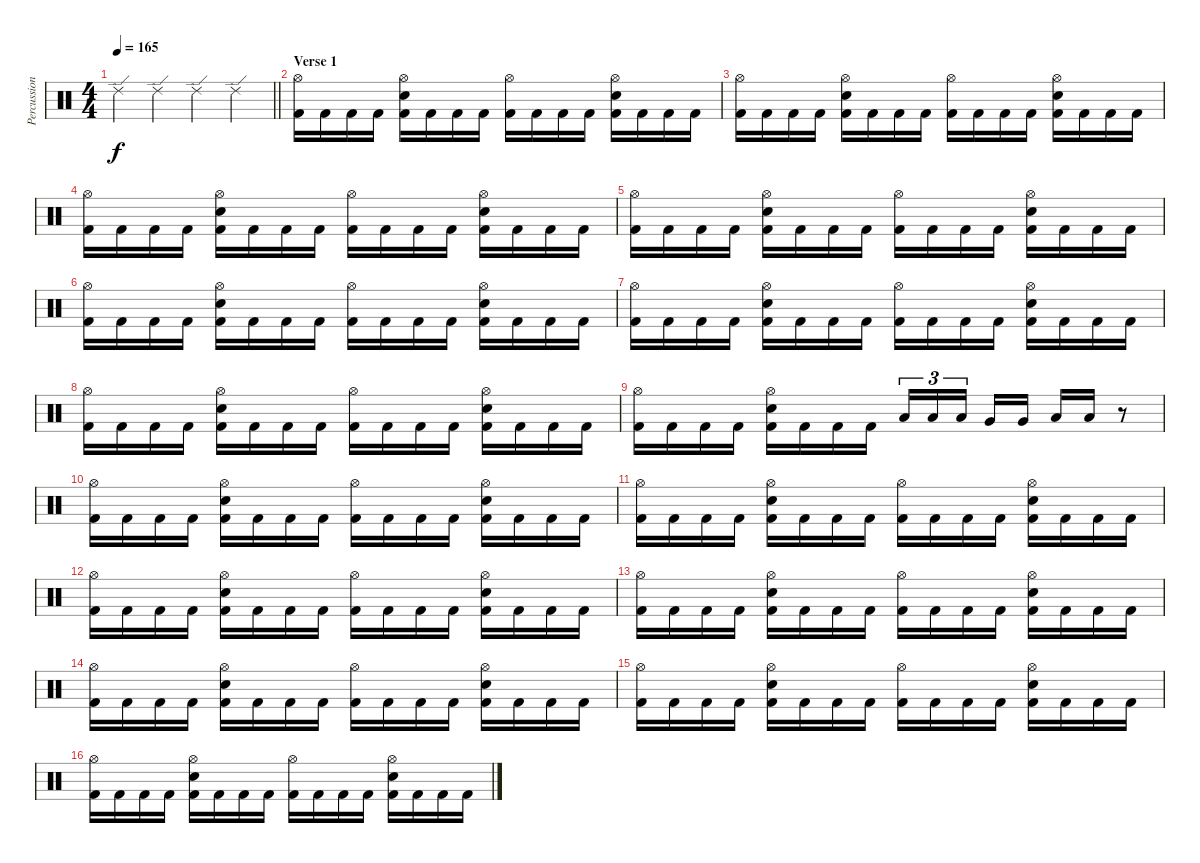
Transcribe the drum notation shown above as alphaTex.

\track ("Percussions" "Percussion") {instrument percussion}
\staff {score}
\articulation defaults
\ts (4 4)
\tempo 165
\clef neutral
\barLineRight lightlight
\ks c "Ride (edge) 2".4{dy f} "Ride (edge) 2".4 "Ride (edge) 2".4 "Ride (edge) 2".4
|
\section ("" "Verse 1")
("Hi-Hat (open)" "Kick (hit) 2").16 "Kick (hit) 2".16 "Kick (hit) 2".16 "Kick (hit) 2".16 ("Hi-Hat (open)" "Electric Snare (hit)" "Kick (hit) 2").16 "Kick (hit) 2".16 "Kick (hit) 2".16 "Kick (hit) 2".16 ("Hi-Hat (open)" "Kick (hit) 2").16 "Kick (hit) 2".16 "Kick (hit) 2".16 "Kick (hit) 2".16 ("Hi-Hat (open)" "Electric Snare (hit)" "Kick (hit) 2").16 "Kick (hit) 2".16 "Kick (hit) 2".16 "Kick (hit) 2".16 |
("Hi-Hat (open)" "Kick (hit) 2").16 "Kick (hit) 2".16 "Kick (hit) 2".16 "Kick (hit) 2".16 ("Hi-Hat (open)" "Electric Snare (hit)" "Kick (hit) 2").16 "Kick (hit) 2".16 "Kick (hit) 2".16 "Kick (hit) 2".16 ("Hi-Hat (open)" "Kick (hit) 2").16 "Kick (hit) 2".16 "Kick (hit) 2".16 "Kick (hit) 2".16 ("Hi-Hat (open)" "Electric Snare (hit)" "Kick (hit) 2").16 "Kick (hit) 2".16 "Kick (hit) 2".16 "Kick (hit) 2".16 |
("Hi-Hat (open)" "Kick (hit) 2").16 "Kick (hit) 2".16 "Kick (hit) 2".16 "Kick (hit) 2".16 ("Hi-Hat (open)" "Electric Snare (hit)" "Kick (hit) 2").16 "Kick (hit) 2".16 "Kick (hit) 2".16 "Kick (hit) 2".16 ("Hi-Hat (open)" "Kick (hit) 2").16 "Kick (hit) 2".16 "Kick (hit) 2".16 "Kick (hit) 2".16 ("Hi-Hat (open)" "Electric Snare (hit)" "Kick (hit) 2").16 "Kick (hit) 2".16 "Kick (hit) 2".16 "Kick (hit) 2".16 |
("Hi-Hat (open)" "Kick (hit) 2").16 "Kick (hit) 2".16 "Kick (hit) 2".16 "Kick (hit) 2".16 ("Hi-Hat (open)" "Electric Snare (hit)" "Kick (hit) 2").16 "Kick (hit) 2".16 "Kick (hit) 2".16 "Kick (hit) 2".16 ("Hi-Hat (open)" "Kick (hit) 2").16 "Kick (hit) 2".16 "Kick (hit) 2".16 "Kick (hit) 2".16 ("Hi-Hat (open)" "Electric Snare (hit)" "Kick (hit) 2").16 "Kick (hit) 2".16 "Kick (hit) 2".16 "Kick (hit) 2".16 |
("Hi-Hat (open)" "Kick (hit) 2").16 "Kick (hit) 2".16 "Kick (hit) 2".16 "Kick (hit) 2".16 ("Hi-Hat (open)" "Electric Snare (hit)" "Kick (hit) 2").16 "Kick (hit) 2".16 "Kick (hit) 2".16 "Kick (hit) 2".16 ("Hi-Hat (open)" "Kick (hit) 2").16 "Kick (hit) 2".16 "Kick (hit) 2".16 "Kick (hit) 2".16 ("Hi-Hat (open)" "Electric Snare (hit)" "Kick (hit) 2").16 "Kick (hit) 2".16 "Kick (hit) 2".16 "Kick (hit) 2".16 |
("Hi-Hat (open)" "Kick (hit) 2").16 "Kick (hit) 2".16 "Kick (hit) 2".16 "Kick (hit) 2".16 ("Hi-Hat (open)" "Electric Snare (hit)" "Kick (hit) 2").16 "Kick (hit) 2".16 "Kick (hit) 2".16 "Kick (hit) 2".16 ("Hi-Hat (open)" "Kick (hit) 2").16 "Kick (hit) 2".16 "Kick (hit) 2".16 "Kick (hit) 2".16 ("Hi-Hat (open)" "Electric Snare (hit)" "Kick (hit) 2").16 "Kick (hit) 2".16 "Kick (hit) 2".16 "Kick (hit) 2".16 |
("Hi-Hat (open)" "Kick (hit) 2").16 "Kick (hit) 2".16 "Kick (hit) 2".16 "Kick (hit) 2".16 ("Hi-Hat (open)" "Electric Snare (hit)" "Kick (hit) 2").16 "Kick (hit) 2".16 "Kick (hit) 2".16 "Kick (hit) 2".16 ("Hi-Hat (open)" "Kick (hit) 2").16 "Kick (hit) 2".16 "Kick (hit) 2".16 "Kick (hit) 2".16 ("Hi-Hat (open)" "Electric Snare (hit)" "Kick (hit) 2").16 "Kick (hit) 2".16 "Kick (hit) 2".16 "Kick (hit) 2".16 |
("Hi-Hat (open)" "Kick (hit) 2").16 "Kick (hit) 2".16 "Kick (hit) 2".16 "Kick (hit) 2".16 ("Hi-Hat (open)" "Electric Snare (hit)" "Kick (hit) 2").16 "Kick (hit) 2".16 "Kick (hit) 2".16 "Kick (hit) 2".16 "Low Tom (hit)".16{tu (3 2)} "Low Tom (hit)".16{tu (3 2)} "Low Tom (hit)".16{tu (3 2)} "Very Low Tom (hit)".16 "Very Low Tom (hit)".16 "Low Floor Tom (hit)".16 "Low Floor Tom (hit)".16 r.8 |
("Hi-Hat (open)" "Kick (hit) 2").16 "Kick (hit) 2".16 "Kick (hit) 2".16 "Kick (hit) 2".16 ("Hi-Hat (open)" "Electric Snare (hit)" "Kick (hit) 2").16 "Kick (hit) 2".16 "Kick (hit) 2".16 "Kick (hit) 2".16 ("Hi-Hat (open)" "Kick (hit) 2").16 "Kick (hit) 2".16 "Kick (hit) 2".16 "Kick (hit) 2".16 ("Hi-Hat (open)" "Electric Snare (hit)" "Kick (hit) 2").16 "Kick (hit) 2".16 "Kick (hit) 2".16 "Kick (hit) 2".16 |
("Hi-Hat (open)" "Kick (hit) 2").16 "Kick (hit) 2".16 "Kick (hit) 2".16 "Kick (hit) 2".16 ("Hi-Hat (open)" "Electric Snare (hit)" "Kick (hit) 2").16 "Kick (hit) 2".16 "Kick (hit) 2".16 "Kick (hit) 2".16 ("Hi-Hat (open)" "Kick (hit) 2").16 "Kick (hit) 2".16 "Kick (hit) 2".16 "Kick (hit) 2".16 ("Hi-Hat (open)" "Electric Snare (hit)" "Kick (hit) 2").16 "Kick (hit) 2".16 "Kick (hit) 2".16 "Kick (hit) 2".16 |
("Hi-Hat (open)" "Kick (hit) 2").16 "Kick (hit) 2".16 "Kick (hit) 2".16 "Kick (hit) 2".16 ("Hi-Hat (open)" "Electric Snare (hit)" "Kick (hit) 2").16 "Kick (hit) 2".16 "Kick (hit) 2".16 "Kick (hit) 2".16 ("Hi-Hat (open)" "Kick (hit) 2").16 "Kick (hit) 2".16 "Kick (hit) 2".16 "Kick (hit) 2".16 ("Hi-Hat (open)" "Electric Snare (hit)" "Kick (hit) 2").16 "Kick (hit) 2".16 "Kick (hit) 2".16 "Kick (hit) 2".16 |
("Hi-Hat (open)" "Kick (hit) 2").16 "Kick (hit) 2".16 "Kick (hit) 2".16 "Kick (hit) 2".16 ("Hi-Hat (open)" "Electric Snare (hit)" "Kick (hit) 2").16 "Kick (hit) 2".16 "Kick (hit) 2".16 "Kick (hit) 2".16 ("Hi-Hat (open)" "Kick (hit) 2").16 "Kick (hit) 2".16 "Kick (hit) 2".16 "Kick (hit) 2".16 ("Hi-Hat (open)" "Electric Snare (hit)" "Kick (hit) 2").16 "Kick (hit) 2".16 "Kick (hit) 2".16 "Kick (hit) 2".16 |
("Hi-Hat (open)" "Kick (hit) 2").16 "Kick (hit) 2".16 "Kick (hit) 2".16 "Kick (hit) 2".16 ("Hi-Hat (open)" "Electric Snare (hit)" "Kick (hit) 2").16 "Kick (hit) 2".16 "Kick (hit) 2".16 "Kick (hit) 2".16 ("Hi-Hat (open)" "Kick (hit) 2").16 "Kick (hit) 2".16 "Kick (hit) 2".16 "Kick (hit) 2".16 ("Hi-Hat (open)" "Electric Snare (hit)" "Kick (hit) 2").16 "Kick (hit) 2".16 "Kick (hit) 2".16 "Kick (hit) 2".16 |
("Hi-Hat (open)" "Kick (hit) 2").16 "Kick (hit) 2".16 "Kick (hit) 2".16 "Kick (hit) 2".16 ("Hi-Hat (open)" "Electric Snare (hit)" "Kick (hit) 2").16 "Kick (hit) 2".16 "Kick (hit) 2".16 "Kick (hit) 2".16 ("Hi-Hat (open)" "Kick (hit) 2").16 "Kick (hit) 2".16 "Kick (hit) 2".16 "Kick (hit) 2".16 ("Hi-Hat (open)" "Electric Snare (hit)" "Kick (hit) 2").16 "Kick (hit) 2".16 "Kick (hit) 2".16 "Kick (hit) 2".16 |
("Hi-Hat (open)" "Kick (hit) 2").16 "Kick (hit) 2".16 "Kick (hit) 2".16 "Kick (hit) 2".16 ("Hi-Hat (open)" "Electric Snare (hit)" "Kick (hit) 2").16 "Kick (hit) 2".16 "Kick (hit) 2".16 "Kick (hit) 2".16 ("Hi-Hat (open)" "Kick (hit) 2").16 "Kick (hit) 2".16 "Kick (hit) 2".16 "Kick (hit) 2".16 ("Hi-Hat (open)" "Electric Snare (hit)" "Kick (hit) 2").16 "Kick (hit) 2".16 "Kick (hit) 2".16 "Kick (hit) 2".16
